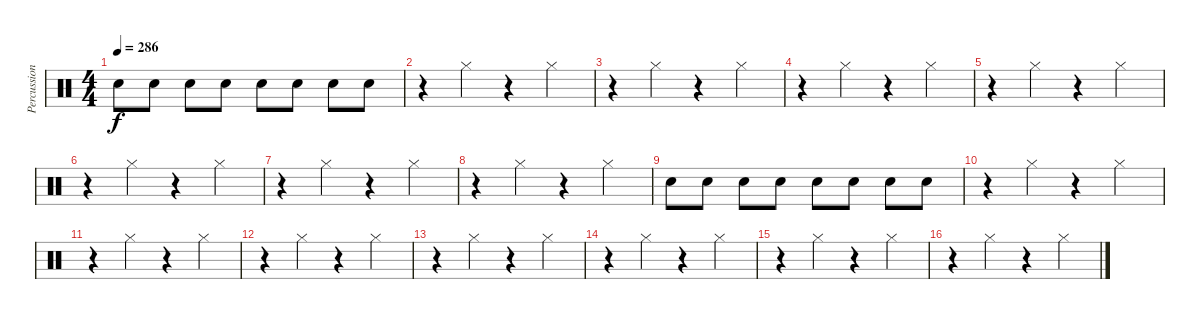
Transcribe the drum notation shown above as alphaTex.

\track ("Percussions" "Percussion") {instrument percussion}
\staff {score}
\articulation defaults
\ts (4 4)
\tempo 286
\clef neutral
\ks c "Electric Snare (hit)".8{dy f} "Electric Snare (hit)".8 "Electric Snare (hit)".8 "Electric Snare (hit)".8 "Electric Snare (hit)".8 "Electric Snare (hit)".8 "Electric Snare (hit)".8 "Electric Snare (hit)".8
|
r.4 "Hi-Hat (closed)".4 r.4 "Hi-Hat (closed)".4 |
r.4 "Hi-Hat (closed)".4 r.4 "Hi-Hat (closed)".4 |
r.4 "Hi-Hat (closed)".4 r.4 "Hi-Hat (closed)".4 |
r.4 "Hi-Hat (closed)".4 r.4 "Hi-Hat (closed)".4 |
r.4 "Hi-Hat (closed)".4 r.4 "Hi-Hat (closed)".4 |
r.4 "Hi-Hat (closed)".4 r.4 "Hi-Hat (closed)".4 |
r.4 "Hi-Hat (closed)".4 r.4 "Hi-Hat (closed)".4 |
"Electric Snare (hit)".8 "Electric Snare (hit)".8 "Electric Snare (hit)".8 "Electric Snare (hit)".8 "Electric Snare (hit)".8 "Electric Snare (hit)".8 "Electric Snare (hit)".8 "Electric Snare (hit)".8 |
r.4 "Hi-Hat (closed)".4 r.4 "Hi-Hat (closed)".4 |
r.4 "Hi-Hat (closed)".4 r.4 "Hi-Hat (closed)".4 |
r.4 "Hi-Hat (closed)".4 r.4 "Hi-Hat (closed)".4 |
r.4 "Hi-Hat (closed)".4 r.4 "Hi-Hat (closed)".4 |
r.4 "Hi-Hat (closed)".4 r.4 "Hi-Hat (closed)".4 |
r.4 "Hi-Hat (closed)".4 r.4 "Hi-Hat (closed)".4 |
r.4 "Hi-Hat (closed)".4 r.4 "Hi-Hat (closed)".4
